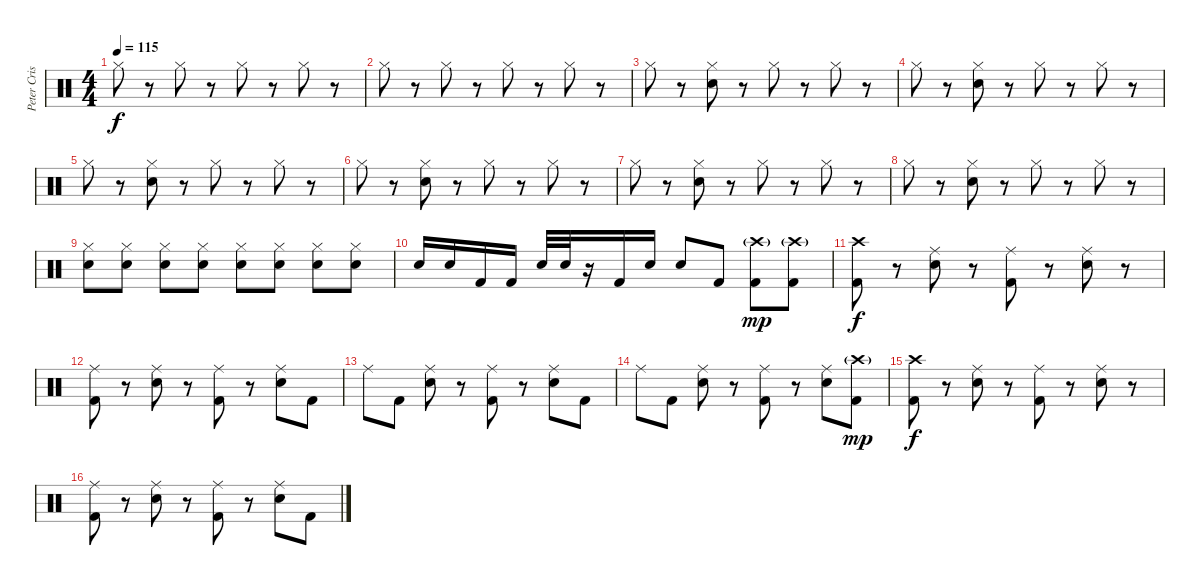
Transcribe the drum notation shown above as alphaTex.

\track ("Peter Criss" "Peter Cris") {instrument percussion}
\staff {score}
\articulation defaults
\ts (4 4)
\tempo 115
\clef neutral
\ks c "Hi-Hat (closed)".8{dy f}
r.8 "Hi-Hat (closed)".8 r.8 "Hi-Hat (closed)".8 r.8 "Hi-Hat (closed)".8 r.8 |
"Hi-Hat (closed)".8 r.8 "Hi-Hat (closed)".8 r.8 "Hi-Hat (closed)".8 r.8 "Hi-Hat (closed)".8 r.8 |
"Hi-Hat (closed)".8 r.8 ("Hi-Hat (closed)" "Electric Snare (hit)").8 r.8 "Hi-Hat (closed)".8 r.8 "Hi-Hat (closed)".8 r.8 |
"Hi-Hat (closed)".8 r.8 ("Hi-Hat (closed)" "Electric Snare (hit)").8 r.8 "Hi-Hat (closed)".8 r.8 "Hi-Hat (closed)".8 r.8 |
"Hi-Hat (closed)".8 r.8 ("Hi-Hat (closed)" "Electric Snare (hit)").8 r.8 "Hi-Hat (closed)".8 r.8 "Hi-Hat (closed)".8 r.8 |
"Hi-Hat (closed)".8 r.8 ("Hi-Hat (closed)" "Electric Snare (hit)").8 r.8 "Hi-Hat (closed)".8 r.8 "Hi-Hat (closed)".8 r.8 |
"Hi-Hat (closed)".8 r.8 ("Hi-Hat (closed)" "Electric Snare (hit)").8 r.8 "Hi-Hat (closed)".8 r.8 "Hi-Hat (closed)".8 r.8 |
"Hi-Hat (closed)".8 r.8 ("Hi-Hat (closed)" "Electric Snare (hit)").8 r.8 "Hi-Hat (closed)".8 r.8 "Hi-Hat (closed)".8 r.8{volume 0} |
("Hi-Hat (closed)" "Electric Snare (hit)").8{volume 16} ("Hi-Hat (closed)" "Electric Snare (hit)").8 ("Hi-Hat (closed)" "Electric Snare (hit)").8 ("Hi-Hat (closed)" "Electric Snare (hit)").8 ("Hi-Hat (closed)" "Electric Snare (hit)").8 ("Hi-Hat (closed)" "Electric Snare (hit)").8 ("Hi-Hat (closed)" "Electric Snare (hit)").8 ("Hi-Hat (closed)" "Electric Snare (hit)").8 |
"Electric Snare (hit)".16 "Electric Snare (hit)".16 "Kick (hit) 2".16 "Kick (hit) 2".16 "Electric Snare (hit)".32 "Electric Snare (hit)".32 r.16 "Kick (hit) 2".16 "Electric Snare (hit)".16 "Electric Snare (hit)".8 "Kick (hit) 2".8 ("Crash high (hit)"{g} "Kick (hit) 2").8{dy mp} ("Crash high (hit)"{g} "Kick (hit) 2").8 |
("Crash high (hit)" "Kick (hit) 2").8{dy f} r.8 ("Ride (middle)" "Electric Snare (hit)").8 r.8 ("Ride (middle)" "Kick (hit) 2").8 r.8 ("Ride (middle)" "Electric Snare (hit)").8 r.8 |
("Ride (middle)" "Kick (hit) 2").8 r.8 ("Ride (middle)" "Electric Snare (hit)").8 r.8 ("Ride (middle)" "Kick (hit) 2").8 r.8 ("Ride (middle)" "Electric Snare (hit)").8 "Kick (hit) 2".8 |
"Ride (middle)".8 "Kick (hit) 2".8 ("Ride (middle)" "Electric Snare (hit)").8 r.8 ("Ride (middle)" "Kick (hit) 2").8 r.8 ("Ride (middle)" "Electric Snare (hit)").8 "Kick (hit) 2".8 |
"Ride (middle)".8 "Kick (hit) 2".8 ("Ride (middle)" "Electric Snare (hit)").8 r.8 ("Ride (middle)" "Kick (hit) 2").8 r.8 ("Ride (middle)" "Electric Snare (hit)").8 ("Crash high (hit)"{g} "Kick (hit) 2").8{dy mp} |
("Crash high (hit)" "Kick (hit) 2").8{dy f} r.8 ("Ride (middle)" "Electric Snare (hit)").8 r.8 ("Ride (middle)" "Kick (hit) 2").8 r.8 ("Ride (middle)" "Electric Snare (hit)").8 r.8 |
("Ride (middle)" "Kick (hit) 2").8 r.8 ("Ride (middle)" "Electric Snare (hit)").8 r.8 ("Ride (middle)" "Kick (hit) 2").8 r.8 ("Ride (middle)" "Electric Snare (hit)").8 "Kick (hit) 2".8
